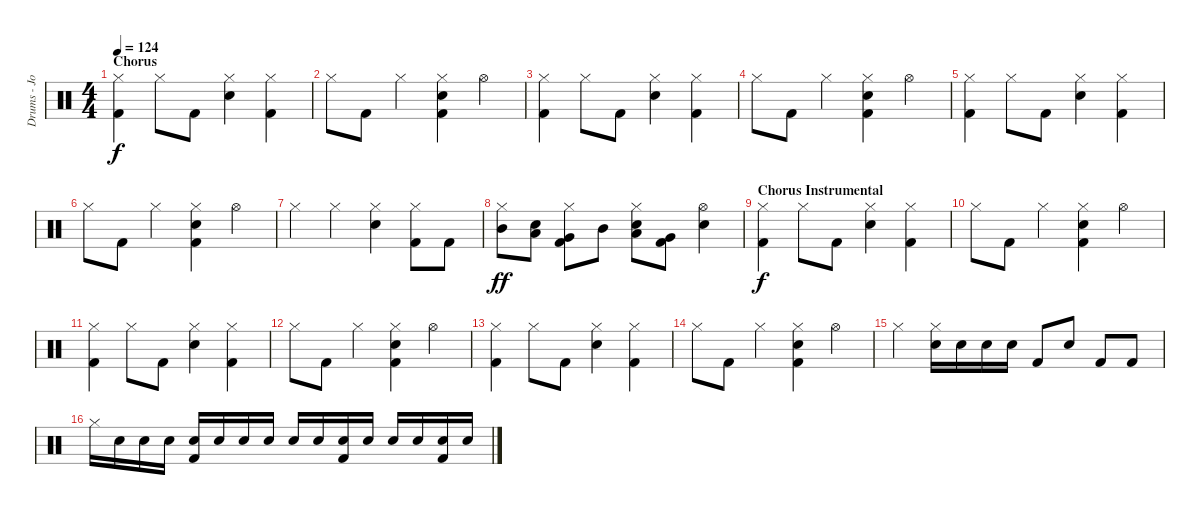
\track ("Drums - John Humphrey" "Drums - Jo") {instrument percussion}
\staff {score}
\articulation defaults
\ts (4 4)
\section ("" "Chorus")
\tempo 124
\clef neutral
\ks c
("Hi-Hat (closed)" "Kick (hit) 2").4{dy f} "Hi-Hat (closed)".8 "Kick (hit) 2".8 ("Hi-Hat (closed)" "Electric Snare (hit)").4 ("Hi-Hat (closed)" "Kick (hit) 2").4 |
"Hi-Hat (closed)".8 "Kick (hit) 2".8 "Hi-Hat (closed)".4 ("Hi-Hat (closed)" "Electric Snare (hit)" "Kick (hit) 2").4 "Hi-Hat (open)".4 |
("Hi-Hat (closed)" "Kick (hit) 2").4 "Hi-Hat (closed)".8 "Kick (hit) 2".8 ("Hi-Hat (closed)" "Electric Snare (hit)").4 ("Hi-Hat (closed)" "Kick (hit) 2").4 |
"Hi-Hat (closed)".8 "Kick (hit) 2".8 "Hi-Hat (closed)".4 ("Hi-Hat (closed)" "Electric Snare (hit)" "Kick (hit) 2").4 "Hi-Hat (open)".4 |
("Hi-Hat (closed)" "Kick (hit) 2").4 "Hi-Hat (closed)".8 "Kick (hit) 2".8 ("Hi-Hat (closed)" "Electric Snare (hit)").4 ("Hi-Hat (closed)" "Kick (hit) 2").4 |
"Hi-Hat (closed)".8 "Kick (hit) 2".8 "Hi-Hat (closed)".4 ("Hi-Hat (closed)" "Electric Snare (hit)" "Kick (hit) 2").4 "Hi-Hat (open)".4 |
"Hi-Hat (closed)".4 "Hi-Hat (closed)".4 ("Hi-Hat (closed)" "Electric Snare (hit)").4 ("Hi-Hat (closed)" "Kick (hit) 2").8 "Kick (hit) 2".8 |
("Hi-Hat (closed)" "Mid Tom (hit)").8{dy ff} ("Low Tom (hit)" "Electric Snare (hit)").8 ("Hi-Hat (closed)" "Very Low Tom (hit)" "Kick (hit) 2").8 "Mid Tom (hit)".8 ("Hi-Hat (closed)" "Low Tom (hit)" "Electric Snare (hit)").8 ("Very Low Tom (hit)" "Kick (hit) 2").8 ("Hi-Hat (open)" "Electric Snare (hit)").4 |
\section ("" "Chorus Instrumental")
("Hi-Hat (closed)" "Kick (hit) 2").4{dy f} "Hi-Hat (closed)".8 "Kick (hit) 2".8 ("Hi-Hat (closed)" "Electric Snare (hit)").4 ("Hi-Hat (closed)" "Kick (hit) 2").4 |
"Hi-Hat (closed)".8 "Kick (hit) 2".8 "Hi-Hat (closed)".4 ("Hi-Hat (closed)" "Electric Snare (hit)" "Kick (hit) 2").4 "Hi-Hat (open)".4 |
("Hi-Hat (closed)" "Kick (hit) 2").4 "Hi-Hat (closed)".8 "Kick (hit) 2".8 ("Hi-Hat (closed)" "Electric Snare (hit)").4 ("Hi-Hat (closed)" "Kick (hit) 2").4 |
"Hi-Hat (closed)".8 "Kick (hit) 2".8 "Hi-Hat (closed)".4 ("Hi-Hat (closed)" "Electric Snare (hit)" "Kick (hit) 2").4 "Hi-Hat (open)".4 |
("Hi-Hat (closed)" "Kick (hit) 2").4 "Hi-Hat (closed)".8 "Kick (hit) 2".8 ("Hi-Hat (closed)" "Electric Snare (hit)").4 ("Hi-Hat (closed)" "Kick (hit) 2").4 |
"Hi-Hat (closed)".8 "Kick (hit) 2".8 "Hi-Hat (closed)".4 ("Hi-Hat (closed)" "Electric Snare (hit)" "Kick (hit) 2").4 "Hi-Hat (open)".4 |
"Hi-Hat (closed)".4 ("Hi-Hat (closed)" "Electric Snare (hit)").16 "Electric Snare (hit)".16 "Electric Snare (hit)".16 "Electric Snare (hit)".16 "Kick (hit) 2".8 "Electric Snare (hit)".8 "Kick (hit) 2".8 "Kick (hit) 2".8 |
"Hi-Hat (closed)".16 "Electric Snare (hit)".16 "Electric Snare (hit)".16 "Electric Snare (hit)".16 ("Electric Snare (hit)" "Kick (hit) 2").16 "Electric Snare (hit)".16 "Electric Snare (hit)".16 "Electric Snare (hit)".16 "Electric Snare (hit)".16 "Electric Snare (hit)".16 ("Electric Snare (hit)" "Kick (hit) 2").16 "Electric Snare (hit)".16 "Electric Snare (hit)".16 "Electric Snare (hit)".16 ("Electric Snare (hit)" "Kick (hit) 2").16 "Electric Snare (hit)".16
